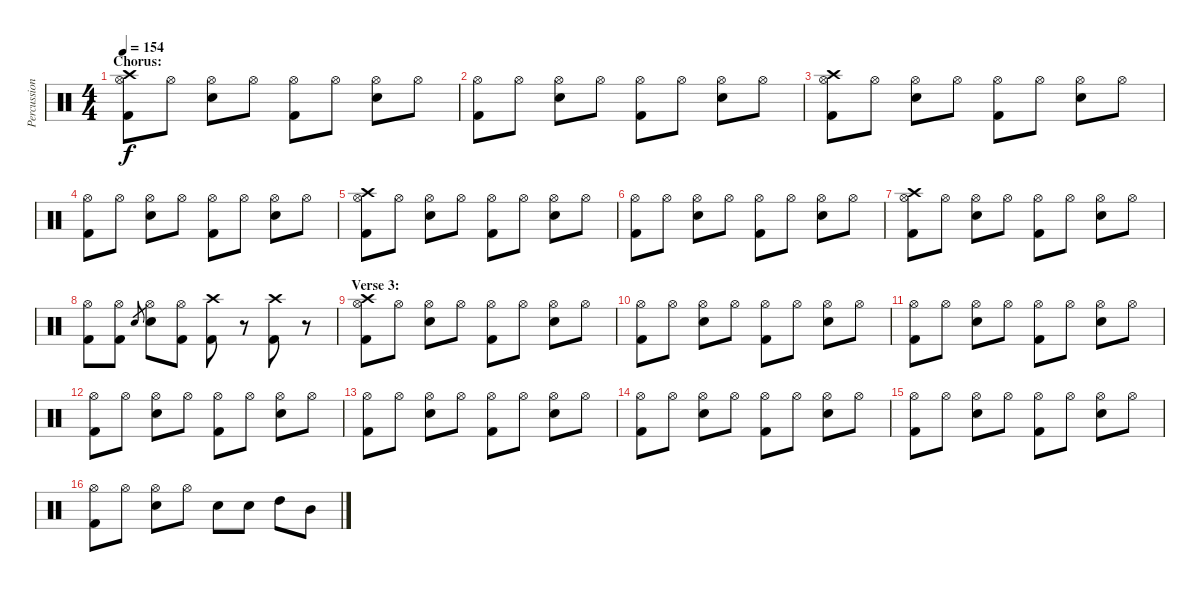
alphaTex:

\track ("Percussion" "Percussion") {instrument percussion}
\staff {score}
\articulation defaults
\ts (4 4)
\section ("" "Chorus:")
\tempo 154
\clef neutral
\ks c
("Hi-Hat (open)" "Crash high (hit)" "Kick (hit) 2").8{dy f} "Hi-Hat (open)".8 ("Hi-Hat (open)" "Snare (hit) 2").8 "Hi-Hat (open)".8 ("Hi-Hat (open)" "Kick (hit) 2").8 "Hi-Hat (open)".8 ("Hi-Hat (open)" "Snare (hit) 2").8 "Hi-Hat (open)".8 |
("Hi-Hat (open)" "Kick (hit) 2").8 "Hi-Hat (open)".8 ("Hi-Hat (open)" "Snare (hit) 2").8 "Hi-Hat (open)".8 ("Hi-Hat (open)" "Kick (hit) 2").8 "Hi-Hat (open)".8 ("Hi-Hat (open)" "Snare (hit) 2").8 "Hi-Hat (open)".8 |
("Hi-Hat (open)" "Crash high (hit)" "Kick (hit) 2").8 "Hi-Hat (open)".8 ("Hi-Hat (open)" "Snare (hit) 2").8 "Hi-Hat (open)".8 ("Hi-Hat (open)" "Kick (hit) 2").8 "Hi-Hat (open)".8 ("Hi-Hat (open)" "Snare (hit) 2").8 "Hi-Hat (open)".8 |
("Hi-Hat (open)" "Kick (hit) 2").8 "Hi-Hat (open)".8 ("Hi-Hat (open)" "Snare (hit) 2").8 "Hi-Hat (open)".8 ("Hi-Hat (open)" "Kick (hit) 2").8 "Hi-Hat (open)".8 ("Hi-Hat (open)" "Snare (hit) 2").8 "Hi-Hat (open)".8 |
("Hi-Hat (open)" "Crash high (hit)" "Kick (hit) 2").8 "Hi-Hat (open)".8 ("Hi-Hat (open)" "Snare (hit) 2").8 "Hi-Hat (open)".8 ("Hi-Hat (open)" "Kick (hit) 2").8 "Hi-Hat (open)".8 ("Hi-Hat (open)" "Snare (hit) 2").8 "Hi-Hat (open)".8 |
("Hi-Hat (open)" "Kick (hit) 2").8 "Hi-Hat (open)".8 ("Hi-Hat (open)" "Snare (hit) 2").8 "Hi-Hat (open)".8 ("Hi-Hat (open)" "Kick (hit) 2").8 "Hi-Hat (open)".8 ("Hi-Hat (open)" "Snare (hit) 2").8 "Hi-Hat (open)".8 |
("Hi-Hat (open)" "Crash high (hit)" "Kick (hit) 2").8 "Hi-Hat (open)".8 ("Hi-Hat (open)" "Snare (hit) 2").8 "Hi-Hat (open)".8 ("Hi-Hat (open)" "Kick (hit) 2").8 "Hi-Hat (open)".8 ("Hi-Hat (open)" "Snare (hit) 2").8 "Hi-Hat (open)".8 |
("Hi-Hat (open)" "Kick (hit) 2").8 ("Hi-Hat (open)" "Kick (hit) 2").8 "Snare (hit) 2".8{gr} ("Hi-Hat (open)" "Snare (hit) 2").8 ("Hi-Hat (open)" "Kick (hit) 2").8 ("Crash high (hit)" "Kick (hit) 2").8 r.8 ("Crash high (hit)" "Kick (hit) 2").8 r.8 |
\section ("" "Verse 3:")
("Hi-Hat (open)" "Crash high (hit)" "Kick (hit) 2").8 "Hi-Hat (open)".8 ("Hi-Hat (open)" "Snare (hit) 2").8 "Hi-Hat (open)".8 ("Hi-Hat (open)" "Kick (hit) 2").8 "Hi-Hat (open)".8 ("Hi-Hat (open)" "Snare (hit) 2").8 "Hi-Hat (open)".8 |
("Hi-Hat (open)" "Kick (hit) 2").8 "Hi-Hat (open)".8 ("Hi-Hat (open)" "Snare (hit) 2").8 "Hi-Hat (open)".8 ("Hi-Hat (open)" "Kick (hit) 2").8 "Hi-Hat (open)".8 ("Hi-Hat (open)" "Snare (hit) 2").8 "Hi-Hat (open)".8 |
("Hi-Hat (open)" "Kick (hit) 2").8 "Hi-Hat (open)".8 ("Hi-Hat (open)" "Snare (hit) 2").8 "Hi-Hat (open)".8 ("Hi-Hat (open)" "Kick (hit) 2").8 "Hi-Hat (open)".8 ("Hi-Hat (open)" "Snare (hit) 2").8 "Hi-Hat (open)".8 |
("Hi-Hat (open)" "Kick (hit) 2").8 "Hi-Hat (open)".8 ("Hi-Hat (open)" "Snare (hit) 2").8 "Hi-Hat (open)".8 ("Hi-Hat (open)" "Kick (hit) 2").8 "Hi-Hat (open)".8 ("Hi-Hat (open)" "Snare (hit) 2").8 "Hi-Hat (open)".8 |
("Hi-Hat (open)" "Kick (hit) 2").8 "Hi-Hat (open)".8 ("Hi-Hat (open)" "Snare (hit) 2").8 "Hi-Hat (open)".8 ("Hi-Hat (open)" "Kick (hit) 2").8 "Hi-Hat (open)".8 ("Hi-Hat (open)" "Snare (hit) 2").8 "Hi-Hat (open)".8 |
("Hi-Hat (open)" "Kick (hit) 2").8 "Hi-Hat (open)".8 ("Hi-Hat (open)" "Snare (hit) 2").8 "Hi-Hat (open)".8 ("Hi-Hat (open)" "Kick (hit) 2").8 "Hi-Hat (open)".8 ("Hi-Hat (open)" "Snare (hit) 2").8 "Hi-Hat (open)".8 |
("Hi-Hat (open)" "Kick (hit) 2").8 "Hi-Hat (open)".8 ("Hi-Hat (open)" "Snare (hit) 2").8 "Hi-Hat (open)".8 ("Hi-Hat (open)" "Kick (hit) 2").8 "Hi-Hat (open)".8 ("Hi-Hat (open)" "Snare (hit) 2").8 "Hi-Hat (open)".8 |
("Hi-Hat (open)" "Kick (hit) 2").8 "Hi-Hat (open)".8 ("Hi-Hat (open)" "Snare (hit) 2").8 "Hi-Hat (open)".8 "Snare (hit) 2".8 "Snare (hit) 2".8 "High Tom (hit)".8 "Mid Tom (hit)".8
